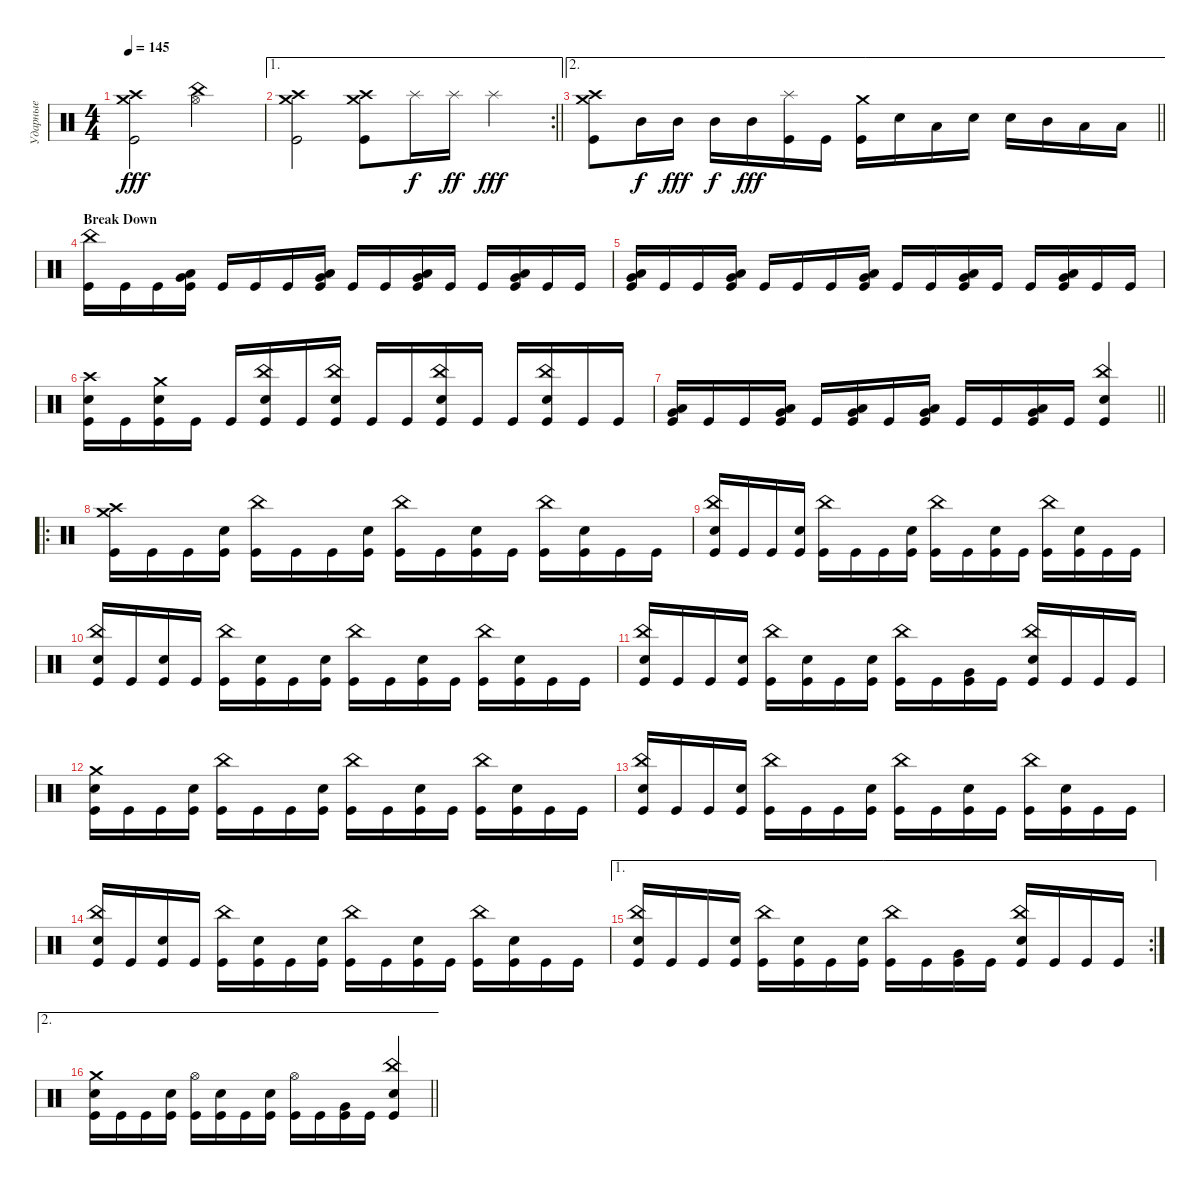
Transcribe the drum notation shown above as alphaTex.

\track ("Ударные" "Ударные") {instrument percussion}
\staff {score}
\articulation defaults
\ts (4 4)
\tempo 145
\clef neutral
\ks c
("Crash high (hit)" "Crash medium (hit)" "Kick (hit)").2{dy fff} ("Hi-Hat (open)" "China (hit)").2 |
\ae 1
\rc 2
\barLineRight lightlight
("Crash high (hit)" "Crash medium (hit)" "Kick (hit)").2 ("Crash medium (hit)" "Crash high (hit)" "Kick (hit)").8 "Splash (hit)".16{dy f} "Splash (hit)".16{dy ff} "Splash (hit)".4{dy fff} |
\ae 2
\barLineRight lightlight
("Crash high (hit)" "Crash medium (hit)" "Kick (hit)").8 "Mid Tom (hit)".16{dy f} "Mid Tom (hit)".16{dy fff} "Mid Tom (hit)".16{dy f} "Mid Tom (hit)".16{dy fff} ("Kick (hit)" "Splash (hit)").16 "Kick (hit)".16 ("Kick (hit)" "Crash medium (hit)").16 "Electric Snare (hit)".16 "Low Tom (hit)".16 "Electric Snare (hit)".16 "Electric Snare (hit)".16 "Mid Tom (hit)".16 "Low Tom (hit)".16 "Low Tom (hit)".16 |
\section ("" "Break Down")
("Kick (hit)" "China (hit)").16 "Kick (hit)".16 "Kick (hit)".16 ("Kick (hit)" "Low Tom (hit)" "Very Low Tom (hit)").16 "Kick (hit)".16 "Kick (hit)".16 "Kick (hit)".16 ("Kick (hit)" "Low Tom (hit)" "Very Low Tom (hit)").16 "Kick (hit)".16 "Kick (hit)".16 ("Kick (hit)" "Low Tom (hit)" "Very Low Tom (hit)").16 "Kick (hit)".16 "Kick (hit)".16 ("Kick (hit)" "Low Tom (hit)" "Very Low Tom (hit)").16 "Kick (hit)".16 "Kick (hit)".16 |
("Kick (hit)" "Low Tom (hit)" "Very Low Tom (hit)").16 "Kick (hit)".16 "Kick (hit)".16 ("Kick (hit)" "Low Tom (hit)" "Very Low Tom (hit)").16 "Kick (hit)".16 "Kick (hit)".16 "Kick (hit)".16 ("Kick (hit)" "Low Tom (hit)" "Very Low Tom (hit)").16 "Kick (hit)".16 "Kick (hit)".16 ("Kick (hit)" "Low Tom (hit)" "Very Low Tom (hit)").16 "Kick (hit)".16 "Kick (hit)".16 ("Kick (hit)" "Low Tom (hit)" "Very Low Tom (hit)").16 "Kick (hit)".16 "Kick (hit)".16 |
("Kick (hit)" "Electric Snare (hit)" "Crash high (hit)").16 "Kick (hit)".16 ("Kick (hit)" "Electric Snare (hit)" "Crash medium (hit)").16 "Kick (hit)".16 "Kick (hit)".16 ("Kick (hit)" "Electric Snare (hit)" "China (hit)").16 "Kick (hit)".16 ("Kick (hit)" "Electric Snare (hit)" "China (hit)").16 "Kick (hit)".16 "Kick (hit)".16 ("Kick (hit)" "Electric Snare (hit)" "China (hit)").16 "Kick (hit)".16 "Kick (hit)".16 ("Kick (hit)" "Electric Snare (hit)" "China (hit)").16 "Kick (hit)".16 "Kick (hit)".16 |
\barLineRight lightlight
("Kick (hit)" "Low Tom (hit)" "Very Low Tom (hit)").16 "Kick (hit)".16 "Kick (hit)".16 ("Kick (hit)" "Low Tom (hit)" "Very Low Tom (hit)").16 "Kick (hit)".16 ("Kick (hit)" "Very Low Tom (hit)" "Low Tom (hit)").16 "Kick (hit)".16 ("Kick (hit)" "Very Low Tom (hit)" "Low Tom (hit)").16 "Kick (hit)".16 "Kick (hit)".16 ("Kick (hit)" "Very Low Tom (hit)" "Low Tom (hit)").16 "Kick (hit)".16 ("Kick (hit)" "Electric Snare (hit)" "China (hit)").4 |
\ro
\section ("" "")
("Kick (hit)" "Crash medium (hit)" "Crash high (hit)").16 "Kick (hit)".16 "Kick (hit)".16 ("Kick (hit)" "Electric Snare (hit)").16 ("Kick (hit)" "China (hit)").16 "Kick (hit)".16 "Kick (hit)".16 ("Kick (hit)" "Electric Snare (hit)").16 ("Kick (hit)" "China (hit)").16 "Kick (hit)".16 ("Kick (hit)" "Electric Snare (hit)").16 "Kick (hit)".16 ("Kick (hit)" "China (hit)").16 ("Kick (hit)" "Electric Snare (hit)").16 "Kick (hit)".16 "Kick (hit)".16 |
("Kick (hit)" "China (hit)" "Electric Snare (hit)").16 "Kick (hit)".16 "Kick (hit)".16 ("Kick (hit)" "Electric Snare (hit)").16 ("Kick (hit)" "China (hit)").16 "Kick (hit)".16 "Kick (hit)".16 ("Kick (hit)" "Electric Snare (hit)").16 ("Kick (hit)" "China (hit)").16 "Kick (hit)".16 ("Kick (hit)" "Electric Snare (hit)").16 "Kick (hit)".16 ("Kick (hit)" "China (hit)").16 ("Kick (hit)" "Electric Snare (hit)").16 "Kick (hit)".16 "Kick (hit)".16 |
("Kick (hit)" "China (hit)" "Electric Snare (hit)").16 "Kick (hit)".16 ("Kick (hit)" "Electric Snare (hit)").16 "Kick (hit)".16 ("Kick (hit)" "China (hit)").16 ("Kick (hit)" "Electric Snare (hit)").16 "Kick (hit)".16 ("Kick (hit)" "Electric Snare (hit)").16 ("Kick (hit)" "China (hit)").16 "Kick (hit)".16 ("Kick (hit)" "Electric Snare (hit)").16 "Kick (hit)".16 ("Kick (hit)" "China (hit)").16 ("Kick (hit)" "Electric Snare (hit)").16 "Kick (hit)".16 "Kick (hit)".16 |
("Kick (hit)" "Electric Snare (hit)" "China (hit)").16 "Kick (hit)".16 "Kick (hit)".16 ("Kick (hit)" "Electric Snare (hit)").16 ("Kick (hit)" "China (hit)").16 ("Kick (hit)" "Electric Snare (hit)").16 "Kick (hit)".16 ("Kick (hit)" "Electric Snare (hit)").16 ("Kick (hit)" "China (hit)").16 "Kick (hit)".16 ("Kick (hit)" "Very Low Tom (hit)").16 "Kick (hit)".16 ("Kick (hit)" "Electric Snare (hit)" "China (hit)").16 "Kick (hit)".16 "Kick (hit)".16 "Kick (hit)".16 |
("Kick (hit)" "Crash medium (hit)" "Electric Snare (hit)").16 "Kick (hit)".16 "Kick (hit)".16 ("Kick (hit)" "Electric Snare (hit)").16 ("Kick (hit)" "China (hit)").16 "Kick (hit)".16 "Kick (hit)".16 ("Kick (hit)" "Electric Snare (hit)").16 ("Kick (hit)" "China (hit)").16 "Kick (hit)".16 ("Kick (hit)" "Electric Snare (hit)").16 "Kick (hit)".16 ("Kick (hit)" "China (hit)").16 ("Kick (hit)" "Electric Snare (hit)").16 "Kick (hit)".16 "Kick (hit)".16 |
("Kick (hit)" "China (hit)" "Electric Snare (hit)").16 "Kick (hit)".16 "Kick (hit)".16 ("Kick (hit)" "Electric Snare (hit)").16 ("Kick (hit)" "China (hit)").16 "Kick (hit)".16 "Kick (hit)".16 ("Kick (hit)" "Electric Snare (hit)").16 ("Kick (hit)" "China (hit)").16 "Kick (hit)".16 ("Kick (hit)" "Electric Snare (hit)").16 "Kick (hit)".16 ("Kick (hit)" "China (hit)").16 ("Kick (hit)" "Electric Snare (hit)").16 "Kick (hit)".16 "Kick (hit)".16 |
("Kick (hit)" "China (hit)" "Electric Snare (hit)").16 "Kick (hit)".16 ("Kick (hit)" "Electric Snare (hit)").16 "Kick (hit)".16 ("Kick (hit)" "China (hit)").16 ("Kick (hit)" "Electric Snare (hit)").16 "Kick (hit)".16 ("Kick (hit)" "Electric Snare (hit)").16 ("Kick (hit)" "China (hit)").16 "Kick (hit)".16 ("Kick (hit)" "Electric Snare (hit)").16 "Kick (hit)".16 ("Kick (hit)" "China (hit)").16 ("Kick (hit)" "Electric Snare (hit)").16 "Kick (hit)".16 "Kick (hit)".16 |
\ae 1
\rc 2
("Kick (hit)" "Electric Snare (hit)" "China (hit)").16 "Kick (hit)".16 "Kick (hit)".16 ("Kick (hit)" "Electric Snare (hit)").16 ("Kick (hit)" "China (hit)").16 ("Kick (hit)" "Electric Snare (hit)").16 "Kick (hit)".16 ("Kick (hit)" "Electric Snare (hit)").16 ("Kick (hit)" "China (hit)").16 "Kick (hit)".16 ("Kick (hit)" "Very Low Tom (hit)").16 "Kick (hit)".16 ("Kick (hit)" "Electric Snare (hit)" "China (hit)").16 "Kick (hit)".16 "Kick (hit)".16 "Kick (hit)".16 |
\ae 2
\barLineRight lightlight
("Kick (hit)" "Electric Snare (hit)" "Crash medium (hit)").16 "Kick (hit)".16 "Kick (hit)".16 ("Kick (hit)" "Electric Snare (hit)").16 ("Kick (hit)" "Hi-Hat (open)").16 ("Kick (hit)" "Electric Snare (hit)").16 "Kick (hit)".16 ("Kick (hit)" "Electric Snare (hit)").16 ("Kick (hit)" "Hi-Hat (open)").16 "Kick (hit)".16 ("Kick (hit)" "Very Low Tom (hit)").16 "Kick (hit)".16 ("Kick (hit)" "Electric Snare (hit)" "China (hit)").4
